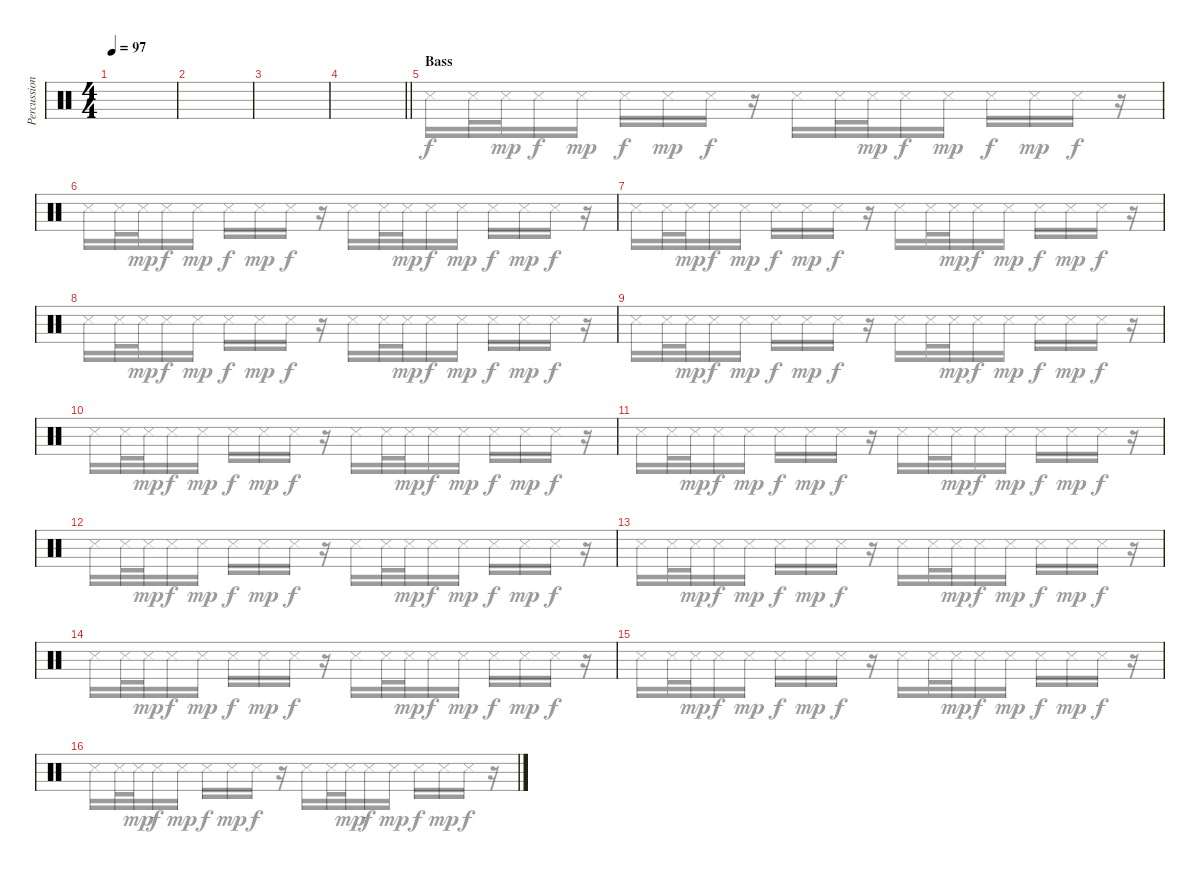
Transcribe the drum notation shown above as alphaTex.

\track ("Percussion" "Percussion") {instrument percussion}
\staff {score}
\articulation defaults
\voice
\ts (4 4)
\tempo 97
\clef neutral
\ks c
|
|
|
\barLineRight lightlight
|
\section ("" "Bass")
|
|
|
|
|
|
|
|
|
|
|
\voice
\clef neutral
\ks c
|
|
|
\barLineRight lightlight
|
"Snare (side stick) 3".16 "Snare (side stick) 3".32 "Metronome (hit)".32{dy mp} "Snare (side stick) 3".16{dy f} "Snare (side stick) 3".16{dy mp} "Metronome (hit)".16{dy f} "Snare (side stick) 3".16{dy mp} "Metronome (hit)".16{dy f} r.16 "Snare (side stick) 3".16 "Snare (side stick) 3".32 "Metronome (hit)".32{dy mp} "Snare (side stick) 3".16{dy f} "Snare (side stick) 3".16{dy mp} "Metronome (hit)".16{dy f} "Snare (side stick) 3".16{dy mp} "Metronome (hit)".16{dy f} r.16 |
"Snare (side stick) 3".16 "Snare (side stick) 3".32 "Metronome (hit)".32{dy mp} "Snare (side stick) 3".16{dy f} "Snare (side stick) 3".16{dy mp} "Metronome (hit)".16{dy f} "Snare (side stick) 3".16{dy mp} "Metronome (hit)".16{dy f} r.16 "Snare (side stick) 3".16 "Snare (side stick) 3".32 "Metronome (hit)".32{dy mp} "Snare (side stick) 3".16{dy f} "Snare (side stick) 3".16{dy mp} "Metronome (hit)".16{dy f} "Snare (side stick) 3".16{dy mp} "Metronome (hit)".16{dy f} r.16 |
"Snare (side stick) 3".16 "Snare (side stick) 3".32 "Metronome (hit)".32{dy mp} "Snare (side stick) 3".16{dy f} "Snare (side stick) 3".16{dy mp} "Metronome (hit)".16{dy f} "Snare (side stick) 3".16{dy mp} "Metronome (hit)".16{dy f} r.16 "Snare (side stick) 3".16 "Snare (side stick) 3".32 "Metronome (hit)".32{dy mp} "Snare (side stick) 3".16{dy f} "Snare (side stick) 3".16{dy mp} "Metronome (hit)".16{dy f} "Snare (side stick) 3".16{dy mp} "Metronome (hit)".16{dy f} r.16 |
"Snare (side stick) 3".16 "Snare (side stick) 3".32 "Metronome (hit)".32{dy mp} "Snare (side stick) 3".16{dy f} "Snare (side stick) 3".16{dy mp} "Metronome (hit)".16{dy f} "Snare (side stick) 3".16{dy mp} "Metronome (hit)".16{dy f} r.16 "Snare (side stick) 3".16 "Snare (side stick) 3".32 "Metronome (hit)".32{dy mp} "Snare (side stick) 3".16{dy f} "Snare (side stick) 3".16{dy mp} "Metronome (hit)".16{dy f} "Snare (side stick) 3".16{dy mp} "Metronome (hit)".16{dy f} r.16 |
"Snare (side stick) 3".16 "Snare (side stick) 3".32 "Metronome (hit)".32{dy mp} "Snare (side stick) 3".16{dy f} "Snare (side stick) 3".16{dy mp} "Metronome (hit)".16{dy f} "Snare (side stick) 3".16{dy mp} "Metronome (hit)".16{dy f} r.16 "Snare (side stick) 3".16 "Snare (side stick) 3".32 "Metronome (hit)".32{dy mp} "Snare (side stick) 3".16{dy f} "Snare (side stick) 3".16{dy mp} "Metronome (hit)".16{dy f} "Snare (side stick) 3".16{dy mp} "Metronome (hit)".16{dy f} r.16 |
"Snare (side stick) 3".16 "Snare (side stick) 3".32 "Metronome (hit)".32{dy mp} "Snare (side stick) 3".16{dy f} "Snare (side stick) 3".16{dy mp} "Metronome (hit)".16{dy f} "Snare (side stick) 3".16{dy mp} "Metronome (hit)".16{dy f} r.16 "Snare (side stick) 3".16 "Snare (side stick) 3".32 "Metronome (hit)".32{dy mp} "Snare (side stick) 3".16{dy f} "Snare (side stick) 3".16{dy mp} "Metronome (hit)".16{dy f} "Snare (side stick) 3".16{dy mp} "Metronome (hit)".16{dy f} r.16 |
"Snare (side stick) 3".16 "Snare (side stick) 3".32 "Metronome (hit)".32{dy mp} "Snare (side stick) 3".16{dy f} "Snare (side stick) 3".16{dy mp} "Metronome (hit)".16{dy f} "Snare (side stick) 3".16{dy mp} "Metronome (hit)".16{dy f} r.16 "Snare (side stick) 3".16 "Snare (side stick) 3".32 "Metronome (hit)".32{dy mp} "Snare (side stick) 3".16{dy f} "Snare (side stick) 3".16{dy mp} "Metronome (hit)".16{dy f} "Snare (side stick) 3".16{dy mp} "Metronome (hit)".16{dy f} r.16 |
"Snare (side stick) 3".16 "Snare (side stick) 3".32 "Metronome (hit)".32{dy mp} "Snare (side stick) 3".16{dy f} "Snare (side stick) 3".16{dy mp} "Metronome (hit)".16{dy f} "Snare (side stick) 3".16{dy mp} "Metronome (hit)".16{dy f} r.16 "Snare (side stick) 3".16 "Snare (side stick) 3".32 "Metronome (hit)".32{dy mp} "Snare (side stick) 3".16{dy f} "Snare (side stick) 3".16{dy mp} "Metronome (hit)".16{dy f} "Snare (side stick) 3".16{dy mp} "Metronome (hit)".16{dy f} r.16 |
"Snare (side stick) 3".16 "Snare (side stick) 3".32 "Metronome (hit)".32{dy mp} "Snare (side stick) 3".16{dy f} "Snare (side stick) 3".16{dy mp} "Metronome (hit)".16{dy f} "Snare (side stick) 3".16{dy mp} "Metronome (hit)".16{dy f} r.16 "Snare (side stick) 3".16 "Snare (side stick) 3".32 "Metronome (hit)".32{dy mp} "Snare (side stick) 3".16{dy f} "Snare (side stick) 3".16{dy mp} "Metronome (hit)".16{dy f} "Snare (side stick) 3".16{dy mp} "Metronome (hit)".16{dy f} r.16 |
"Snare (side stick) 3".16 "Snare (side stick) 3".32 "Metronome (hit)".32{dy mp} "Snare (side stick) 3".16{dy f} "Snare (side stick) 3".16{dy mp} "Metronome (hit)".16{dy f} "Snare (side stick) 3".16{dy mp} "Metronome (hit)".16{dy f} r.16 "Snare (side stick) 3".16 "Snare (side stick) 3".32 "Metronome (hit)".32{dy mp} "Snare (side stick) 3".16{dy f} "Snare (side stick) 3".16{dy mp} "Metronome (hit)".16{dy f} "Snare (side stick) 3".16{dy mp} "Metronome (hit)".16{dy f} r.16 |
"Snare (side stick) 3".16 "Snare (side stick) 3".32 "Metronome (hit)".32{dy mp} "Snare (side stick) 3".16{dy f} "Snare (side stick) 3".16{dy mp} "Metronome (hit)".16{dy f} "Snare (side stick) 3".16{dy mp} "Metronome (hit)".16{dy f} r.16 "Snare (side stick) 3".16 "Snare (side stick) 3".32 "Metronome (hit)".32{dy mp} "Snare (side stick) 3".16{dy f} "Snare (side stick) 3".16{dy mp} "Metronome (hit)".16{dy f} "Snare (side stick) 3".16{dy mp} "Metronome (hit)".16{dy f} r.16 |
"Snare (side stick) 3".16 "Snare (side stick) 3".32 "Metronome (hit)".32{dy mp} "Snare (side stick) 3".16{dy f} "Snare (side stick) 3".16{dy mp} "Metronome (hit)".16{dy f} "Snare (side stick) 3".16{dy mp} "Metronome (hit)".16{dy f} r.16 "Snare (side stick) 3".16 "Snare (side stick) 3".32 "Metronome (hit)".32{dy mp} "Snare (side stick) 3".16{dy f} "Snare (side stick) 3".16{dy mp} "Metronome (hit)".16{dy f} "Snare (side stick) 3".16{dy mp} "Metronome (hit)".16{dy f} r.16
